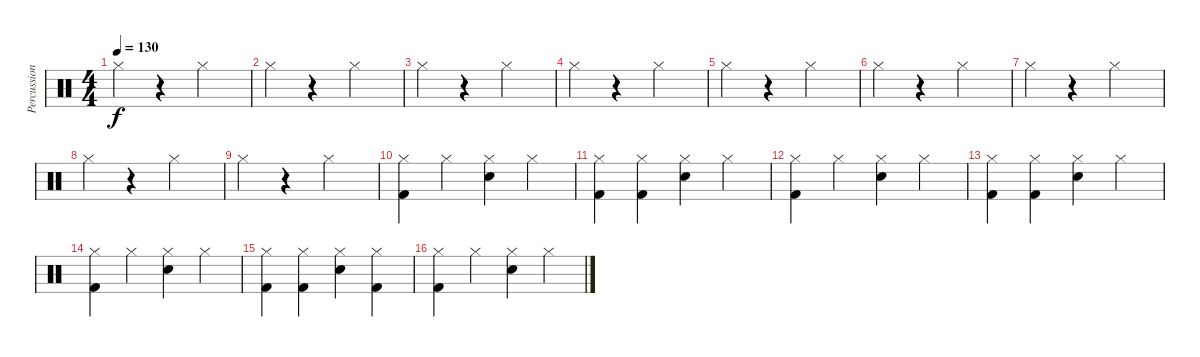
\track ("Percussion" "Percussion") {instrument percussion}
\staff {score}
\articulation defaults
\ts (4 4)
\tempo 130
\clef neutral
\ks c "Hi-Hat (closed)".4{dy f}
r.4 "Hi-Hat (closed)".2 |
"Hi-Hat (closed)".4 r.4 "Hi-Hat (closed)".2 |
"Hi-Hat (closed)".4 r.4 "Hi-Hat (closed)".2 |
"Hi-Hat (closed)".4 r.4 "Hi-Hat (closed)".2 |
"Hi-Hat (closed)".4 r.4 "Hi-Hat (closed)".2 |
"Hi-Hat (closed)".4 r.4 "Hi-Hat (closed)".2 |
"Hi-Hat (closed)".4 r.4 "Hi-Hat (closed)".2 |
"Hi-Hat (closed)".4 r.4 "Hi-Hat (closed)".2 |
"Hi-Hat (closed)".4 r.4 "Hi-Hat (closed)".2 |
("Hi-Hat (closed)" "Kick (hit) 2").4 "Hi-Hat (closed)".4 ("Snare (hit) 2" "Hi-Hat (closed)").4 "Hi-Hat (closed)".4 |
("Hi-Hat (closed)" "Kick (hit) 2").4 ("Hi-Hat (closed)" "Kick (hit) 2").4 ("Hi-Hat (closed)" "Snare (hit) 2").4 "Hi-Hat (closed)".4 |
("Hi-Hat (closed)" "Kick (hit) 2").4 "Hi-Hat (closed)".4 ("Snare (hit) 2" "Hi-Hat (closed)").4 "Hi-Hat (closed)".4 |
("Hi-Hat (closed)" "Kick (hit) 2").4 ("Hi-Hat (closed)" "Kick (hit) 2").4 ("Hi-Hat (closed)" "Snare (hit) 2").4 "Hi-Hat (closed)".4 |
("Hi-Hat (closed)" "Kick (hit) 2").4 "Hi-Hat (closed)".4 ("Snare (hit) 2" "Hi-Hat (closed)").4 "Hi-Hat (closed)".4 |
("Hi-Hat (closed)" "Kick (hit) 2").4 ("Hi-Hat (closed)" "Kick (hit) 2").4 ("Hi-Hat (closed)" "Snare (hit) 2").4 ("Kick (hit) 2" "Hi-Hat (closed)").4 |
("Hi-Hat (closed)" "Kick (hit) 2").4 "Hi-Hat (closed)".4 ("Snare (hit) 2" "Hi-Hat (closed)").4 "Hi-Hat (closed)".4
